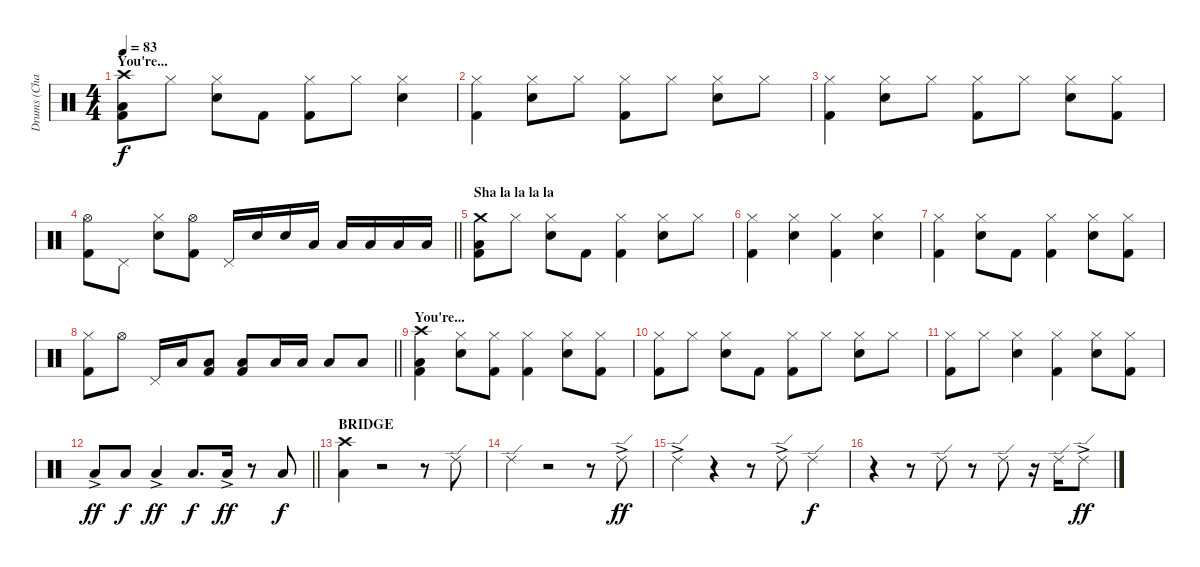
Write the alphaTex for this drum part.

\track ("Drums (Charlie)" "Drums (Cha") {instrument percussion}
\staff {score}
\articulation defaults
\ts (4 4)
\section ("" "You're...")
\tempo 83
\clef neutral
\ks c
("Crash high (hit)" "Low Floor Tom (hit)" "Kick (hit) 2").8{dy f} "Hi-Hat (closed)".8 ("Hi-Hat (closed)" "Snare (hit) 2").8 "Kick (hit) 2".8 ("Hi-Hat (closed)" "Kick (hit) 2").8 "Hi-Hat (closed)".8 ("Hi-Hat (closed)" "Snare (hit) 2").4 |
("Hi-Hat (closed)" "Kick (hit) 2").4 ("Hi-Hat (closed)" "Snare (hit) 2").8 "Hi-Hat (closed)".8 ("Hi-Hat (closed)" "Kick (hit) 2").8 "Hi-Hat (closed)".8 ("Hi-Hat (closed)" "Snare (hit) 2").8 "Hi-Hat (closed)".8 |
("Hi-Hat (closed)" "Kick (hit) 2").4 ("Hi-Hat (closed)" "Snare (hit) 2").8 "Hi-Hat (closed)".8 ("Hi-Hat (closed)" "Kick (hit) 2").8 "Hi-Hat (closed)".8 ("Hi-Hat (closed)" "Snare (hit) 2").8 ("Hi-Hat (closed)" "Kick (hit) 2").8 |
\barLineRight lightlight
("Hi-Hat (open)" "Kick (hit) 2").8 "Pedal Hi-Hat (hit)".8 ("Hi-Hat (closed)" "Snare (hit) 2").8 ("Hi-Hat (open)" "Kick (hit) 2").8 "Pedal Hi-Hat (hit)".16 "Snare (hit) 2".16 "Snare (hit) 2".16 "Low Tom (hit)".16 "Low Tom (hit)".16 "Low Floor Tom (hit)".16 "Low Tom (hit)".16 "Low Floor Tom (hit)".16 |
\section ("" "Sha la la la la")
("Crash medium (hit)" "Low Floor Tom (hit)" "Kick (hit) 2").8 "Hi-Hat (closed)".8 ("Hi-Hat (closed)" "Snare (hit) 2").8 "Kick (hit) 2".8 ("Hi-Hat (closed)" "Kick (hit) 2").4 ("Hi-Hat (closed)" "Snare (hit) 2").8 "Hi-Hat (closed)".8 |
("Hi-Hat (closed)" "Kick (hit) 2").4 ("Hi-Hat (closed)" "Snare (hit) 2").4 ("Hi-Hat (closed)" "Kick (hit) 2").4 ("Hi-Hat (closed)" "Snare (hit) 2").4 |
("Hi-Hat (closed)" "Kick (hit) 2").4 ("Hi-Hat (closed)" "Snare (hit) 2").8 "Kick (hit) 2".8 ("Hi-Hat (closed)" "Kick (hit) 2").4 ("Hi-Hat (closed)" "Snare (hit) 2").8 ("Hi-Hat (closed)" "Kick (hit) 2").8 |
\barLineRight lightlight
("Hi-Hat (closed)" "Kick (hit) 2").8 "Hi-Hat (open)".8 "Pedal Hi-Hat (hit)".16 "Low Floor Tom (hit)".16 ("Low Floor Tom (hit)" "Kick (hit) 2").8 ("Low Tom (hit)" "Kick (hit) 2").8 "Low Floor Tom (hit)".16 "Low Tom (hit)".16 "Low Tom (hit)".8 "Low Tom (hit)".8 |
\section ("" "You're...")
("Crash high (hit)" "Low Floor Tom (hit)" "Kick (hit) 2").4 ("Hi-Hat (closed)" "Snare (hit) 2").8 ("Hi-Hat (closed)" "Kick (hit) 2").8 ("Hi-Hat (closed)" "Kick (hit) 2").4 ("Hi-Hat (closed)" "Snare (hit) 2").8 ("Hi-Hat (closed)" "Kick (hit) 2").8 |
("Hi-Hat (closed)" "Kick (hit) 2").8 "Hi-Hat (closed)".8 ("Hi-Hat (closed)" "Snare (hit) 2").8 "Kick (hit) 2".8 ("Hi-Hat (closed)" "Kick (hit) 2").8 "Hi-Hat (closed)".8 ("Hi-Hat (closed)" "Snare (hit) 2").8 "Hi-Hat (closed)".8 |
("Hi-Hat (closed)" "Kick (hit) 2").8 "Hi-Hat (closed)".8 ("Hi-Hat (closed)" "Snare (hit) 2").4 ("Hi-Hat (closed)" "Kick (hit) 2").4 ("Hi-Hat (closed)" "Snare (hit) 2").8 ("Hi-Hat (closed)" "Kick (hit) 2").8 |
\barLineRight lightlight "Low Tom (hit)"{ac}.8{dy ff} "Low Floor Tom (hit)".8{dy f} "Low Tom (hit)"{ac}.4{dy ff} "Low Floor Tom (hit)".8{d dy f} "Low Tom (hit)"{ac}.16{dy ff}
r.8 "Low Floor Tom (hit)".8{dy f} |
\section ("" "BRIDGE")
("Crash high (hit)" "Low Floor Tom (hit)").4 r.2 r.8 "Ride (edge) 2".8 |
"Ride (edge) 2".4 r.2 r.8 "Ride (edge) 2"{ac}.8{dy ff} |
"Ride (edge) 2"{ac}.4 r.4 r.8 "Ride (edge) 2"{ac}.8 "Ride (edge) 2".4{dy f} |
r.4 r.8 "Ride (edge) 2".8 r.8 "Ride (edge) 2".8 r.16 "Ride (edge) 2".16 "Ride (edge) 2"{ac}.8{dy ff}
